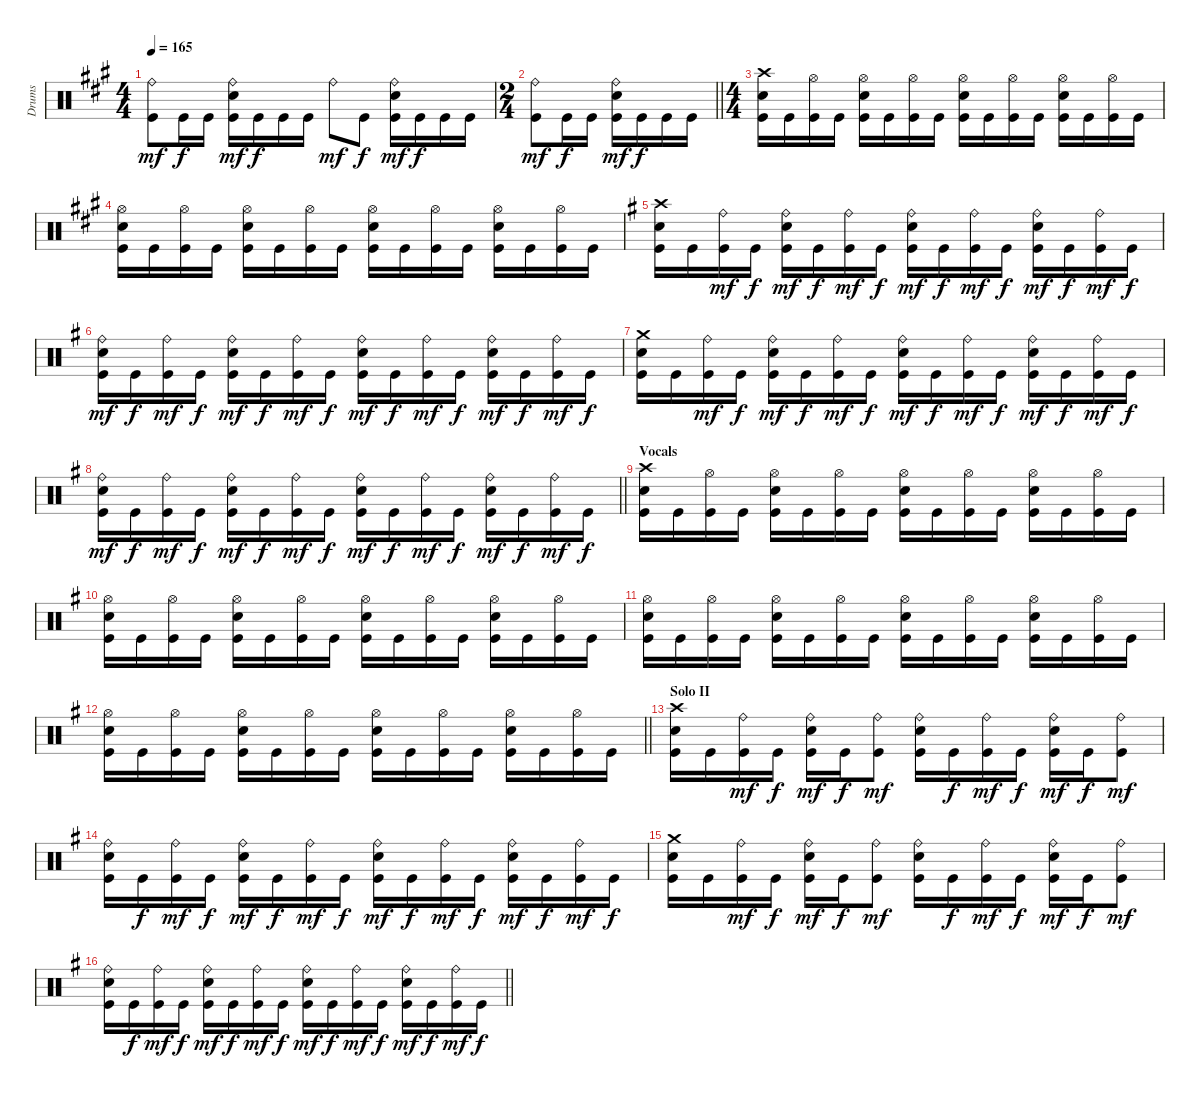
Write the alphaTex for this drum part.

\track ("Drums" "Drums") {instrument percussion}
\staff {score}
\articulation defaults
\ts (4 4)
\tempo 165
\clef neutral
\ks f#minor
("Ride (bell)" "Kick (hit)").8{dy mf} "Kick (hit)".16{dy f} "Kick (hit)".16 ("Ride (bell)" "Snare (hit) 2" "Kick (hit)").16{dy mf} "Kick (hit)".16{dy f} "Kick (hit)".16 "Kick (hit)".16 "Ride (bell)".8{dy mf} "Kick (hit)".8{dy f} ("Ride (bell)" "Snare (hit) 2" "Kick (hit)").16{dy mf} "Kick (hit)".16{dy f} "Kick (hit)".16 "Kick (hit)".16 |
\ts (2 4)
\barLineRight lightlight
("Ride (bell)" "Kick (hit)").8{dy mf} "Kick (hit)".16{dy f} "Kick (hit)".16 ("Ride (bell)" "Snare (hit) 2" "Kick (hit)").16{dy mf} "Kick (hit)".16{dy f} "Kick (hit)".16 "Kick (hit)".16 |
\ts (4 4)
\section ("" "")
("Crash high (hit)" "Snare (hit) 2" "Kick (hit)").16 "Kick (hit)".16 ("Hi-Hat (open)" "Kick (hit)").16 "Kick (hit)".16 ("Hi-Hat (open)" "Snare (hit) 2" "Kick (hit)").16 "Kick (hit)".16 ("Hi-Hat (open)" "Kick (hit)").16 "Kick (hit)".16 ("Hi-Hat (open)" "Snare (hit) 2" "Kick (hit)").16 "Kick (hit)".16 ("Hi-Hat (open)" "Kick (hit)").16 "Kick (hit)".16 ("Hi-Hat (open)" "Snare (hit) 2" "Kick (hit)").16 "Kick (hit)".16 ("Hi-Hat (open)" "Kick (hit)").16 "Kick (hit)".16 |
("Hi-Hat (open)" "Snare (hit) 2" "Kick (hit)").16 "Kick (hit)".16 ("Hi-Hat (open)" "Kick (hit)").16 "Kick (hit)".16 ("Hi-Hat (open)" "Snare (hit) 2" "Kick (hit)").16 "Kick (hit)".16 ("Hi-Hat (open)" "Kick (hit)").16 "Kick (hit)".16 ("Hi-Hat (open)" "Snare (hit) 2" "Kick (hit)").16 "Kick (hit)".16 ("Hi-Hat (open)" "Kick (hit)").16 "Kick (hit)".16 ("Hi-Hat (open)" "Snare (hit) 2" "Kick (hit)").16 "Kick (hit)".16 ("Hi-Hat (open)" "Kick (hit)").16 "Kick (hit)".16 |
\ks eminor
("Crash high (hit)" "Snare (hit) 2" "Kick (hit)").16 "Kick (hit)".16 ("Ride (bell)" "Kick (hit)").16{dy mf} "Kick (hit)".16{dy f} ("Ride (bell)" "Snare (hit) 2" "Kick (hit)").16{dy mf} "Kick (hit)".16{dy f} ("Ride (bell)" "Kick (hit)").16{dy mf} "Kick (hit)".16{dy f} ("Ride (bell)" "Snare (hit) 2" "Kick (hit)").16{dy mf} "Kick (hit)".16{dy f} ("Ride (bell)" "Kick (hit)").16{dy mf} "Kick (hit)".16{dy f} ("Ride (bell)" "Snare (hit) 2" "Kick (hit)").16{dy mf} "Kick (hit)".16{dy f} ("Ride (bell)" "Kick (hit)").16{dy mf} "Kick (hit)".16{dy f} |
("Ride (bell)" "Snare (hit) 2" "Kick (hit)").16{dy mf} "Kick (hit)".16{dy f} ("Ride (bell)" "Kick (hit)").16{dy mf} "Kick (hit)".16{dy f} ("Ride (bell)" "Snare (hit) 2" "Kick (hit)").16{dy mf} "Kick (hit)".16{dy f} ("Ride (bell)" "Kick (hit)").16{dy mf} "Kick (hit)".16{dy f} ("Ride (bell)" "Snare (hit) 2" "Kick (hit)").16{dy mf} "Kick (hit)".16{dy f} ("Ride (bell)" "Kick (hit)").16{dy mf} "Kick (hit)".16{dy f} ("Ride (bell)" "Snare (hit) 2" "Kick (hit)").16{dy mf} "Kick (hit)".16{dy f} ("Ride (bell)" "Kick (hit)").16{dy mf} "Kick (hit)".16{dy f} |
("Crash medium (hit)" "Snare (hit) 2" "Kick (hit)").16 "Kick (hit)".16 ("Ride (bell)" "Kick (hit)").16{dy mf} "Kick (hit)".16{dy f} ("Ride (bell)" "Snare (hit) 2" "Kick (hit)").16{dy mf} "Kick (hit)".16{dy f} ("Ride (bell)" "Kick (hit)").16{dy mf} "Kick (hit)".16{dy f} ("Ride (bell)" "Snare (hit) 2" "Kick (hit)").16{dy mf} "Kick (hit)".16{dy f} ("Ride (bell)" "Kick (hit)").16{dy mf} "Kick (hit)".16{dy f} ("Ride (bell)" "Snare (hit) 2" "Kick (hit)").16{dy mf} "Kick (hit)".16{dy f} ("Ride (bell)" "Kick (hit)").16{dy mf} "Kick (hit)".16{dy f} |
\barLineRight lightlight
("Ride (bell)" "Snare (hit) 2" "Kick (hit)").16{dy mf} "Kick (hit)".16{dy f} ("Ride (bell)" "Kick (hit)").16{dy mf} "Kick (hit)".16{dy f} ("Ride (bell)" "Snare (hit) 2" "Kick (hit)").16{dy mf} "Kick (hit)".16{dy f} ("Ride (bell)" "Kick (hit)").16{dy mf} "Kick (hit)".16{dy f} ("Ride (bell)" "Snare (hit) 2" "Kick (hit)").16{dy mf} "Kick (hit)".16{dy f} ("Ride (bell)" "Kick (hit)").16{dy mf} "Kick (hit)".16{dy f} ("Ride (bell)" "Snare (hit) 2" "Kick (hit)").16{dy mf} "Kick (hit)".16{dy f} ("Ride (bell)" "Kick (hit)").16{dy mf} "Kick (hit)".16{dy f} |
\section ("" "Vocals")
("Crash high (hit)" "Snare (hit) 2" "Kick (hit)").16 "Kick (hit)".16 ("Hi-Hat (open)" "Kick (hit)").16 "Kick (hit)".16 ("Hi-Hat (open)" "Snare (hit) 2" "Kick (hit)").16 "Kick (hit)".16 ("Hi-Hat (open)" "Kick (hit)").16 "Kick (hit)".16 ("Hi-Hat (open)" "Snare (hit) 2" "Kick (hit)").16 "Kick (hit)".16 ("Hi-Hat (open)" "Kick (hit)").16 "Kick (hit)".16 ("Hi-Hat (open)" "Snare (hit) 2" "Kick (hit)").16 "Kick (hit)".16 ("Hi-Hat (open)" "Kick (hit)").16 "Kick (hit)".16 |
("Hi-Hat (open)" "Snare (hit) 2" "Kick (hit)").16 "Kick (hit)".16 ("Hi-Hat (open)" "Kick (hit)").16 "Kick (hit)".16 ("Hi-Hat (open)" "Snare (hit) 2" "Kick (hit)").16 "Kick (hit)".16 ("Hi-Hat (open)" "Kick (hit)").16 "Kick (hit)".16 ("Hi-Hat (open)" "Snare (hit) 2" "Kick (hit)").16 "Kick (hit)".16 ("Hi-Hat (open)" "Kick (hit)").16 "Kick (hit)".16 ("Hi-Hat (open)" "Snare (hit) 2" "Kick (hit)").16 "Kick (hit)".16 ("Hi-Hat (open)" "Kick (hit)").16 "Kick (hit)".16 |
("Hi-Hat (open)" "Snare (hit) 2" "Kick (hit)").16 "Kick (hit)".16 ("Hi-Hat (open)" "Kick (hit)").16 "Kick (hit)".16 ("Hi-Hat (open)" "Snare (hit) 2" "Kick (hit)").16 "Kick (hit)".16 ("Hi-Hat (open)" "Kick (hit)").16 "Kick (hit)".16 ("Hi-Hat (open)" "Snare (hit) 2" "Kick (hit)").16 "Kick (hit)".16 ("Hi-Hat (open)" "Kick (hit)").16 "Kick (hit)".16 ("Hi-Hat (open)" "Snare (hit) 2" "Kick (hit)").16 "Kick (hit)".16 ("Hi-Hat (open)" "Kick (hit)").16 "Kick (hit)".16 |
\barLineRight lightlight
("Hi-Hat (open)" "Snare (hit) 2" "Kick (hit)").16 "Kick (hit)".16 ("Hi-Hat (open)" "Kick (hit)").16 "Kick (hit)".16 ("Hi-Hat (open)" "Snare (hit) 2" "Kick (hit)").16 "Kick (hit)".16 ("Hi-Hat (open)" "Kick (hit)").16 "Kick (hit)".16 ("Hi-Hat (open)" "Snare (hit) 2" "Kick (hit)").16 "Kick (hit)".16 ("Hi-Hat (open)" "Kick (hit)").16 "Kick (hit)".16 ("Hi-Hat (open)" "Snare (hit) 2" "Kick (hit)").16 "Kick (hit)".16 ("Hi-Hat (open)" "Kick (hit)").16 "Kick (hit)".16 |
\section ("" "Solo II")
("Crash high (hit)" "Snare (hit) 2" "Kick (hit)").16 "Kick (hit)".16 ("Ride (bell)" "Kick (hit)").16{dy mf} "Kick (hit)".16{dy f} ("Ride (bell)" "Snare (hit) 2" "Kick (hit)").16{dy mf} "Kick (hit)".16{dy f} ("Ride (bell)" "Kick (hit)").8{dy mf} ("Ride (bell)" "Snare (hit) 2" "Kick (hit)").16 "Kick (hit)".16{dy f} ("Ride (bell)" "Kick (hit)").16{dy mf} "Kick (hit)".16{dy f} ("Ride (bell)" "Snare (hit) 2" "Kick (hit)").16{dy mf} "Kick (hit)".16{dy f} ("Ride (bell)" "Kick (hit)").8{dy mf} |
("Ride (bell)" "Snare (hit) 2" "Kick (hit)").16 "Kick (hit)".16{dy f} ("Ride (bell)" "Kick (hit)").16{dy mf} "Kick (hit)".16{dy f} ("Ride (bell)" "Snare (hit) 2" "Kick (hit)").16{dy mf} "Kick (hit)".16{dy f} ("Ride (bell)" "Kick (hit)").16{dy mf} "Kick (hit)".16{dy f} ("Ride (bell)" "Snare (hit) 2" "Kick (hit)").16{dy mf} "Kick (hit)".16{dy f} ("Ride (bell)" "Kick (hit)").16{dy mf} "Kick (hit)".16{dy f} ("Ride (bell)" "Snare (hit) 2" "Kick (hit)").16{dy mf} "Kick (hit)".16{dy f} ("Ride (bell)" "Kick (hit)").16{dy mf} "Kick (hit)".16{dy f} |
("Crash medium (hit)" "Snare (hit) 2" "Kick (hit)").16 "Kick (hit)".16 ("Ride (bell)" "Kick (hit)").16{dy mf} "Kick (hit)".16{dy f} ("Ride (bell)" "Snare (hit) 2" "Kick (hit)").16{dy mf} "Kick (hit)".16{dy f} ("Ride (bell)" "Kick (hit)").8{dy mf} ("Ride (bell)" "Snare (hit) 2" "Kick (hit)").16 "Kick (hit)".16{dy f} ("Ride (bell)" "Kick (hit)").16{dy mf} "Kick (hit)".16{dy f} ("Ride (bell)" "Snare (hit) 2" "Kick (hit)").16{dy mf} "Kick (hit)".16{dy f} ("Ride (bell)" "Kick (hit)").8{dy mf} |
\barLineRight lightlight
("Ride (bell)" "Snare (hit) 2" "Kick (hit)").16 "Kick (hit)".16{dy f} ("Ride (bell)" "Kick (hit)").16{dy mf} "Kick (hit)".16{dy f} ("Ride (bell)" "Snare (hit) 2" "Kick (hit)").16{dy mf} "Kick (hit)".16{dy f} ("Ride (bell)" "Kick (hit)").16{dy mf} "Kick (hit)".16{dy f} ("Ride (bell)" "Snare (hit) 2" "Kick (hit)").16{dy mf} "Kick (hit)".16{dy f} ("Ride (bell)" "Kick (hit)").16{dy mf} "Kick (hit)".16{dy f} ("Ride (bell)" "Snare (hit) 2" "Kick (hit)").16{dy mf} "Kick (hit)".16{dy f} ("Ride (bell)" "Kick (hit)").16{dy mf} "Kick (hit)".16{dy f}
